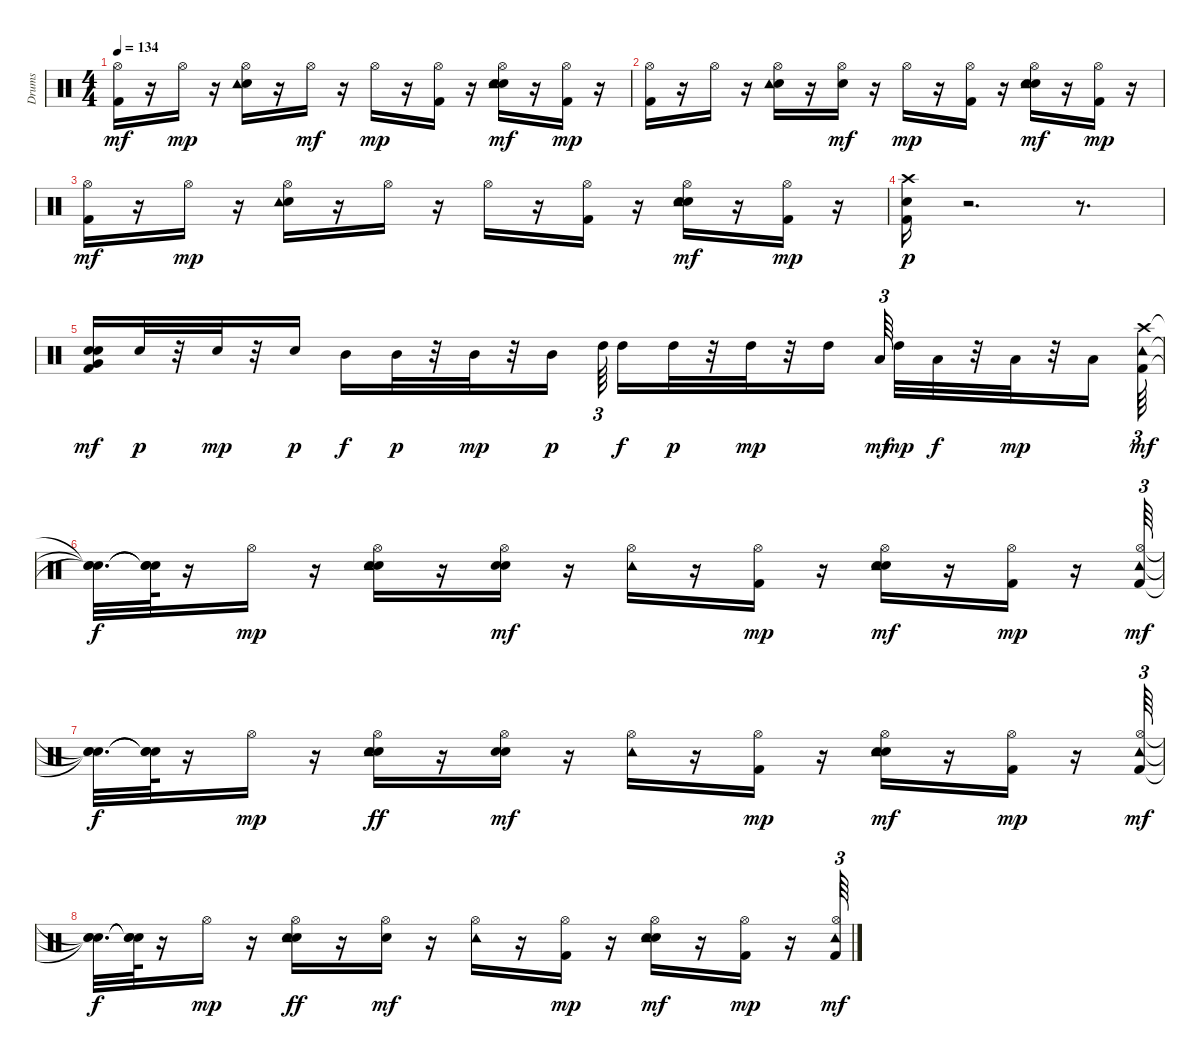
\track ("Drums" "Drums") {instrument percussion}
\staff {score}
\articulation defaults
\ts (4 4)
\tempo 134
\clef neutral
\ks c
("Kick (hit) 2" "Hi-Hat (open)").16{dy mf} r.16 "Hi-Hat (open)".16{dy mp} r.16 ("Hi-Hat (open)" "Snare (hit) 2" "Tambourine (hit)").16 r.16 "Hi-Hat (open)".16{dy mf} r.16 "Hi-Hat (open)".16{dy mp} r.16 ("Kick (hit) 2" "Hi-Hat (open)").16 r.16 ("Hi-Hat (open)" "Snare (hit) 2" "Hand Clap (hit)" "Tambourine (hit)").16{dy mf} r.16 ("Kick (hit) 2" "Hi-Hat (open)").16{dy mp} r.16 |
("Hi-Hat (open)" "Kick (hit) 2").16 r.16 "Hi-Hat (open)".16 r.16 ("Hi-Hat (open)" "Snare (hit) 2" "Tambourine (hit)").16 r.16 ("Hi-Hat (open)" "Snare (hit) 2").16{dy mf} r.16 "Hi-Hat (open)".16{dy mp} r.16 ("Kick (hit) 2" "Hi-Hat (open)").16 r.16 ("Hi-Hat (open)" "Snare (hit) 2" "Hand Clap (hit)" "Tambourine (hit)").16{dy mf} r.16 ("Kick (hit) 2" "Hi-Hat (open)").16{dy mp} r.16 |
("Kick (hit) 2" "Hi-Hat (open)").16{dy mf} r.16 "Hi-Hat (open)".16{dy mp} r.16 ("Hi-Hat (open)" "Snare (hit) 2" "Tambourine (hit)").16 r.16 "Hi-Hat (open)".16 r.16 "Hi-Hat (open)".16 r.16 ("Kick (hit) 2" "Hi-Hat (open)").16 r.16 ("Hi-Hat (open)" "Snare (hit) 2" "Hand Clap (hit)" "Tambourine (hit)").16{dy mf} r.16 ("Kick (hit) 2" "Hi-Hat (open)").16{dy mp} r.16 |
("Kick (hit) 2" "Snare (hit) 2" "Crash high (hit)").16{dy p} r.2{d} r.8{d} |
("Snare (hit) 2" "Very Low Tom (hit)" "Kick (hit) 2" "Snare (hit) 2").16{dy mf} "Snare (hit) 2".32{dy p} r.32 "Snare (hit) 2".32{dy mp} r.32 "Snare (hit) 2".16{dy p} "Mid Tom (hit)".16{dy f} "Mid Tom (hit)".32{dy p} r.32 "Mid Tom (hit)".32{dy mp} r.32 "Mid Tom (hit)".16{dy p} "High Tom (hit)".64{tu (3 2) beam splitsecondary} "High Tom (hit)".16{dy f} "High Tom (hit)".32{dy p} r.32 "High Tom (hit)".32{dy mp} r.32 "High Tom (hit)".16 "Low Tom (hit)".64{tu (3 2) dy mf beam splitsecondary} "High Tom (hit)".32{dy mp} "Low Tom (hit)".32{dy f} r.32 "Low Tom (hit)".32{dy mp} r.32 "Low Tom (hit)".16 ("Kick (hit) 2" "Tambourine (hit)" "Crash high (hit)").64{tu (3 2) dy mf} |
("Snare (hit)"{t} "Snare (hit)"{t} "Snare (hit)"{t}).32{d dy f} ("Snare (hit)"{t} "Snare (hit)"{t} "Snare (hit)"{t}).64 r.16 "Hi-Hat (open)".16{dy mp} r.16 ("Hand Clap (hit)" "Tambourine (hit)" "Hi-Hat (open)" "Snare (hit) 2").16 r.16 ("Hi-Hat (open)" "Snare (hit) 2" "Hand Clap (hit)").16{dy mf} r.16 ("Hi-Hat (open)" "Tambourine (hit)").16 r.16 ("Kick (hit) 2" "Hi-Hat (open)").16{dy mp} r.16 ("Hi-Hat (open)" "Snare (hit) 2" "Hand Clap (hit)" "Tambourine (hit)").16{dy mf} r.16 ("Kick (hit) 2" "Hi-Hat (open)").16{dy mp} r.16 ("Kick (hit) 2" "Hi-Hat (open)" "Tambourine (hit)").64{tu (3 2) dy mf} |
("Snare (hit)"{t} "Snare (hit)"{t} "Snare (hit)"{t}).32{d dy f} ("Snare (hit)"{t} "Snare (hit)"{t} "Snare (hit)"{t}).64 r.16 "Hi-Hat (open)".16{dy mp} r.16 ("Hi-Hat (open)" "Snare (hit) 2" "Hand Clap (hit)" "Tambourine (hit)").16{dy ff} r.16 ("Hi-Hat (open)" "Snare (hit) 2" "Hand Clap (hit)").16{dy mf} r.16 ("Hi-Hat (open)" "Tambourine (hit)").16 r.16 ("Kick (hit) 2" "Hi-Hat (open)").16{dy mp} r.16 ("Hand Clap (hit)" "Hi-Hat (open)" "Snare (hit) 2" "Tambourine (hit)").16{dy mf} r.16 ("Kick (hit) 2" "Hi-Hat (open)").16{dy mp} r.16 ("Kick (hit) 2" "Hi-Hat (open)" "Tambourine (hit)").64{tu (3 2) dy mf} |
("Snare (hit)"{t} "Snare (hit)"{t} "Snare (hit)"{t}).32{d dy f} ("Snare (hit)"{t} "Snare (hit)"{t} "Snare (hit)"{t}).64 r.16 "Hi-Hat (open)".16{dy mp} r.16 ("Hi-Hat (open)" "Snare (hit) 2" "Hand Clap (hit)" "Tambourine (hit)").16{dy ff} r.16 ("Hi-Hat (open)" "Hand Clap (hit)").16{dy mf} r.16 ("Hi-Hat (open)" "Tambourine (hit)").16 r.16 ("Kick (hit) 2" "Hi-Hat (open)").16{dy mp} r.16 ("Hi-Hat (open)" "Snare (hit) 2" "Hand Clap (hit)" "Tambourine (hit)").16{dy mf} r.16 ("Kick (hit) 2" "Hi-Hat (open)").16{dy mp} r.16 ("Kick (hit) 2" "Hi-Hat (open)" "Tambourine (hit)").64{tu (3 2) dy mf}
